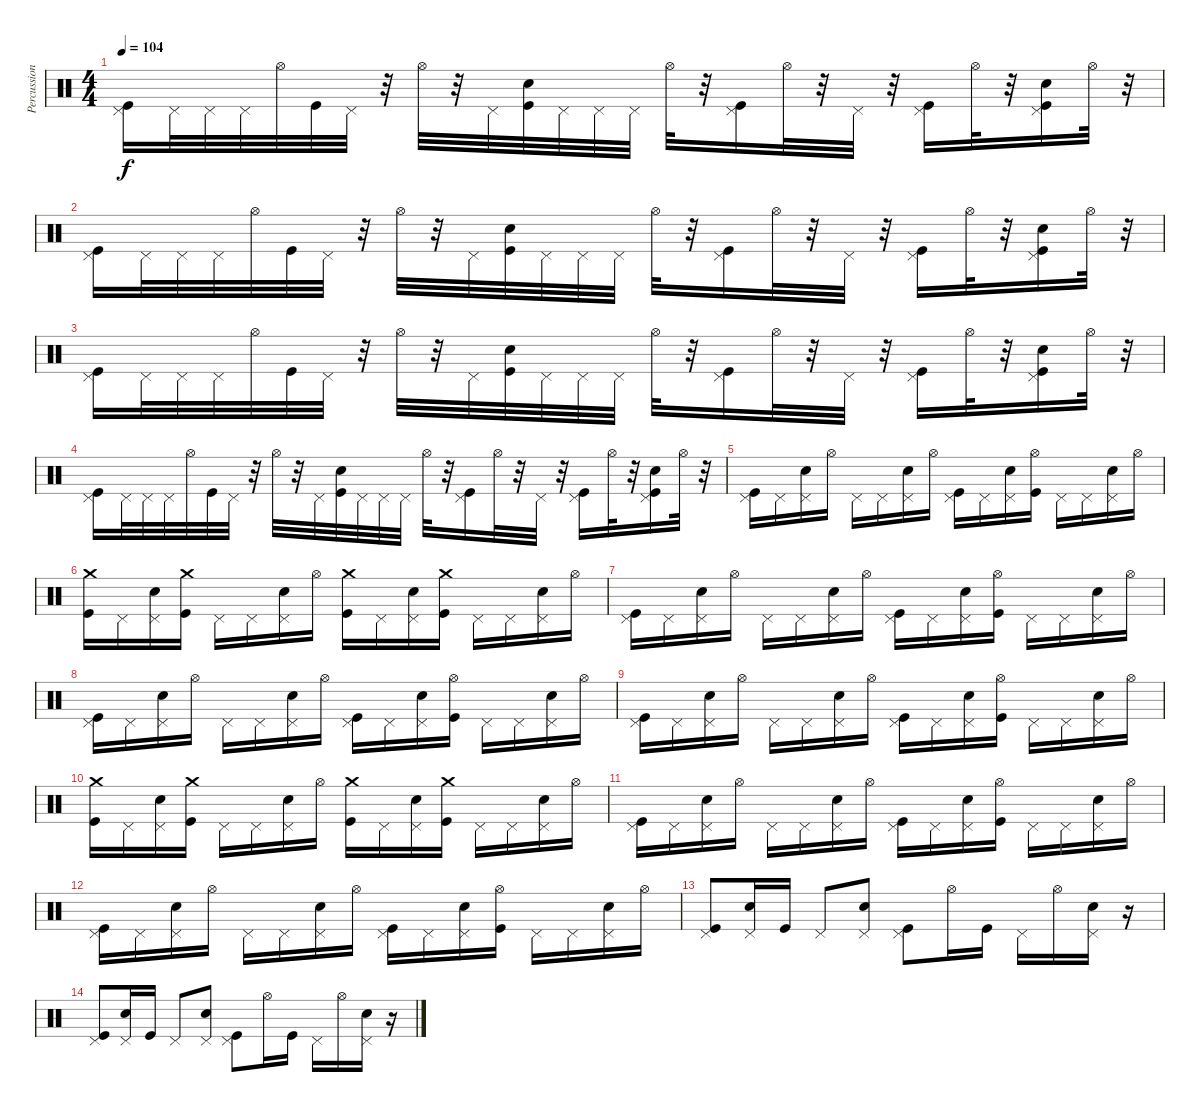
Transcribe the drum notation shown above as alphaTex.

\track ("Percussion" "Percussion") {instrument percussion}
\staff {score}
\articulation defaults
\ts (4 4)
\tempo 104
\clef neutral
\ks c
("Kick (hit)" "Pedal Hi-Hat (hit)").16{dy f volume 9 balance 16} "Pedal Hi-Hat (hit)".32 "Pedal Hi-Hat (hit)".32 "Pedal Hi-Hat (hit)".32 "Hi-Hat (open)".32 "Kick (hit)".32 "Pedal Hi-Hat (hit)".32 r.32 "Hi-Hat (open)".32 r.32 "Pedal Hi-Hat (hit)".32 ("Electric Snare (hit)" "Kick (hit)").32 "Pedal Hi-Hat (hit)".32 "Pedal Hi-Hat (hit)".32 "Pedal Hi-Hat (hit)".32 "Hi-Hat (open)".32 r.32 ("Pedal Hi-Hat (hit)" "Kick (hit)").16 "Hi-Hat (open)".32 r.32 "Pedal Hi-Hat (hit)".32 r.32 ("Kick (hit)" "Pedal Hi-Hat (hit)").16 "Hi-Hat (open)".32 r.32 ("Kick (hit)" "Electric Snare (hit)" "Pedal Hi-Hat (hit)").16 "Hi-Hat (open)".32 r.32 |
("Kick (hit)" "Pedal Hi-Hat (hit)").16 "Pedal Hi-Hat (hit)".32 "Pedal Hi-Hat (hit)".32 "Pedal Hi-Hat (hit)".32 "Hi-Hat (open)".32 "Kick (hit)".32 "Pedal Hi-Hat (hit)".32 r.32 "Hi-Hat (open)".32 r.32 "Pedal Hi-Hat (hit)".32 ("Electric Snare (hit)" "Kick (hit)").32 "Pedal Hi-Hat (hit)".32 "Pedal Hi-Hat (hit)".32 "Pedal Hi-Hat (hit)".32 "Hi-Hat (open)".32 r.32 ("Pedal Hi-Hat (hit)" "Kick (hit)").16 "Hi-Hat (open)".32 r.32 "Pedal Hi-Hat (hit)".32 r.32 ("Kick (hit)" "Pedal Hi-Hat (hit)").16 "Hi-Hat (open)".32 r.32 ("Kick (hit)" "Electric Snare (hit)" "Pedal Hi-Hat (hit)").16 "Hi-Hat (open)".32 r.32 |
("Kick (hit)" "Pedal Hi-Hat (hit)").16 "Pedal Hi-Hat (hit)".32 "Pedal Hi-Hat (hit)".32 "Pedal Hi-Hat (hit)".32 "Hi-Hat (open)".32 "Kick (hit)".32 "Pedal Hi-Hat (hit)".32 r.32 "Hi-Hat (open)".32 r.32 "Pedal Hi-Hat (hit)".32 ("Electric Snare (hit)" "Kick (hit)").32 "Pedal Hi-Hat (hit)".32 "Pedal Hi-Hat (hit)".32 "Pedal Hi-Hat (hit)".32 "Hi-Hat (open)".32 r.32 ("Pedal Hi-Hat (hit)" "Kick (hit)").16 "Hi-Hat (open)".32 r.32 "Pedal Hi-Hat (hit)".32 r.32 ("Kick (hit)" "Pedal Hi-Hat (hit)").16 "Hi-Hat (open)".32 r.32 ("Kick (hit)" "Electric Snare (hit)" "Pedal Hi-Hat (hit)").16 "Hi-Hat (open)".32 r.32 |
("Kick (hit)" "Pedal Hi-Hat (hit)").16 "Pedal Hi-Hat (hit)".32 "Pedal Hi-Hat (hit)".32 "Pedal Hi-Hat (hit)".32 "Hi-Hat (open)".32 "Kick (hit)".32 "Pedal Hi-Hat (hit)".32 r.32 "Hi-Hat (open)".32 r.32 "Pedal Hi-Hat (hit)".32 ("Electric Snare (hit)" "Kick (hit)").32 "Pedal Hi-Hat (hit)".32 "Pedal Hi-Hat (hit)".32 "Pedal Hi-Hat (hit)".32 "Hi-Hat (open)".32 r.32 ("Pedal Hi-Hat (hit)" "Kick (hit)").16 "Hi-Hat (open)".32 r.32 "Pedal Hi-Hat (hit)".32 r.32 ("Kick (hit)" "Pedal Hi-Hat (hit)").16 "Hi-Hat (open)".32 r.32 ("Kick (hit)" "Electric Snare (hit)" "Pedal Hi-Hat (hit)").16 "Hi-Hat (open)".32 r.32 |
("Kick (hit)" "Pedal Hi-Hat (hit)").16{volume 9 balance 16} "Pedal Hi-Hat (hit)".16{volume 9 balance 16} ("Electric Snare (hit)" "Pedal Hi-Hat (hit)").16 "Hi-Hat (open)".16 "Pedal Hi-Hat (hit)".16 "Pedal Hi-Hat (hit)".16 ("Electric Snare (hit)" "Pedal Hi-Hat (hit)").16 "Hi-Hat (open)".16 ("Kick (hit)" "Pedal Hi-Hat (hit)").16 "Pedal Hi-Hat (hit)".16 ("Electric Snare (hit)" "Pedal Hi-Hat (hit)").16 ("Kick (hit)" "Hi-Hat (open)").16 "Pedal Hi-Hat (hit)".16 "Pedal Hi-Hat (hit)".16 ("Electric Snare (hit)" "Pedal Hi-Hat (hit)").16 "Hi-Hat (open)".16 |
("Kick (hit)" "Crash medium (hit)").16 "Pedal Hi-Hat (hit)".16 ("Pedal Hi-Hat (hit)" "Electric Snare (hit)").16 ("Kick (hit)" "Crash medium (hit)").16 "Pedal Hi-Hat (hit)".16 "Pedal Hi-Hat (hit)".16 ("Pedal Hi-Hat (hit)" "Electric Snare (hit)").16 "Hi-Hat (open)".16 ("Kick (hit)" "Crash medium (hit)").16 "Pedal Hi-Hat (hit)".16 ("Pedal Hi-Hat (hit)" "Electric Snare (hit)").16 ("Kick (hit)" "Crash medium (hit)").16 "Pedal Hi-Hat (hit)".16 "Pedal Hi-Hat (hit)".16 ("Pedal Hi-Hat (hit)" "Electric Snare (hit)").16 "Hi-Hat (open)".16 |
("Kick (hit)" "Pedal Hi-Hat (hit)").16 "Pedal Hi-Hat (hit)".16 ("Electric Snare (hit)" "Pedal Hi-Hat (hit)").16 "Hi-Hat (open)".16 "Pedal Hi-Hat (hit)".16 "Pedal Hi-Hat (hit)".16 ("Electric Snare (hit)" "Pedal Hi-Hat (hit)").16 "Hi-Hat (open)".16 ("Kick (hit)" "Pedal Hi-Hat (hit)").16 "Pedal Hi-Hat (hit)".16 ("Electric Snare (hit)" "Pedal Hi-Hat (hit)").16 ("Kick (hit)" "Hi-Hat (open)").16 "Pedal Hi-Hat (hit)".16 "Pedal Hi-Hat (hit)".16 ("Electric Snare (hit)" "Pedal Hi-Hat (hit)").16 "Hi-Hat (open)".16 |
("Kick (hit)" "Pedal Hi-Hat (hit)").16 "Pedal Hi-Hat (hit)".16 ("Electric Snare (hit)" "Pedal Hi-Hat (hit)").16 "Hi-Hat (open)".16 "Pedal Hi-Hat (hit)".16 "Pedal Hi-Hat (hit)".16 ("Electric Snare (hit)" "Pedal Hi-Hat (hit)").16 "Hi-Hat (open)".16 ("Kick (hit)" "Pedal Hi-Hat (hit)").16 "Pedal Hi-Hat (hit)".16 ("Electric Snare (hit)" "Pedal Hi-Hat (hit)").16 ("Kick (hit)" "Hi-Hat (open)").16 "Pedal Hi-Hat (hit)".16 "Pedal Hi-Hat (hit)".16 ("Electric Snare (hit)" "Pedal Hi-Hat (hit)").16 "Hi-Hat (open)".16 |
("Kick (hit)" "Pedal Hi-Hat (hit)").16 "Pedal Hi-Hat (hit)".16 ("Electric Snare (hit)" "Pedal Hi-Hat (hit)").16 "Hi-Hat (open)".16 "Pedal Hi-Hat (hit)".16 "Pedal Hi-Hat (hit)".16 ("Electric Snare (hit)" "Pedal Hi-Hat (hit)").16 "Hi-Hat (open)".16 ("Kick (hit)" "Pedal Hi-Hat (hit)").16 "Pedal Hi-Hat (hit)".16 ("Electric Snare (hit)" "Pedal Hi-Hat (hit)").16 ("Kick (hit)" "Hi-Hat (open)").16 "Pedal Hi-Hat (hit)".16 "Pedal Hi-Hat (hit)".16 ("Electric Snare (hit)" "Pedal Hi-Hat (hit)").16 "Hi-Hat (open)".16 |
("Kick (hit)" "Crash medium (hit)").16 "Pedal Hi-Hat (hit)".16 ("Pedal Hi-Hat (hit)" "Electric Snare (hit)").16 ("Kick (hit)" "Crash medium (hit)").16 "Pedal Hi-Hat (hit)".16 "Pedal Hi-Hat (hit)".16 ("Pedal Hi-Hat (hit)" "Electric Snare (hit)").16 "Hi-Hat (open)".16 ("Kick (hit)" "Crash medium (hit)").16 "Pedal Hi-Hat (hit)".16 ("Pedal Hi-Hat (hit)" "Electric Snare (hit)").16 ("Kick (hit)" "Crash medium (hit)").16 "Pedal Hi-Hat (hit)".16 "Pedal Hi-Hat (hit)".16 ("Pedal Hi-Hat (hit)" "Electric Snare (hit)").16 "Hi-Hat (open)".16 |
("Kick (hit)" "Pedal Hi-Hat (hit)").16 "Pedal Hi-Hat (hit)".16 ("Electric Snare (hit)" "Pedal Hi-Hat (hit)").16 "Hi-Hat (open)".16 "Pedal Hi-Hat (hit)".16 "Pedal Hi-Hat (hit)".16 ("Electric Snare (hit)" "Pedal Hi-Hat (hit)").16 "Hi-Hat (open)".16 ("Kick (hit)" "Pedal Hi-Hat (hit)").16 "Pedal Hi-Hat (hit)".16 ("Electric Snare (hit)" "Pedal Hi-Hat (hit)").16 ("Kick (hit)" "Hi-Hat (open)").16 "Pedal Hi-Hat (hit)".16 "Pedal Hi-Hat (hit)".16 ("Electric Snare (hit)" "Pedal Hi-Hat (hit)").16 "Hi-Hat (open)".16 |
("Kick (hit)" "Pedal Hi-Hat (hit)").16 "Pedal Hi-Hat (hit)".16 ("Electric Snare (hit)" "Pedal Hi-Hat (hit)").16 "Hi-Hat (open)".16 "Pedal Hi-Hat (hit)".16 "Pedal Hi-Hat (hit)".16 ("Electric Snare (hit)" "Pedal Hi-Hat (hit)").16 "Hi-Hat (open)".16 ("Kick (hit)" "Pedal Hi-Hat (hit)").16 "Pedal Hi-Hat (hit)".16 ("Electric Snare (hit)" "Pedal Hi-Hat (hit)").16 ("Kick (hit)" "Hi-Hat (open)").16 "Pedal Hi-Hat (hit)".16 "Pedal Hi-Hat (hit)".16 ("Electric Snare (hit)" "Pedal Hi-Hat (hit)").16 "Hi-Hat (open)".16 |
("Kick (hit)" "Pedal Hi-Hat (hit)").8 ("Electric Snare (hit)" "Pedal Hi-Hat (hit)").16 "Kick (hit)".16 "Pedal Hi-Hat (hit)".8 ("Electric Snare (hit)" "Pedal Hi-Hat (hit)").8 ("Kick (hit)" "Pedal Hi-Hat (hit)").8 "Hi-Hat (open)".16{volume 10} "Kick (hit)".16 "Pedal Hi-Hat (hit)".16{volume 9} "Hi-Hat (open)".16{volume 9} ("Electric Snare (hit)" "Pedal Hi-Hat (hit)").16{volume 9} r.16 |
("Kick (hit)" "Pedal Hi-Hat (hit)").8{volume 8} ("Electric Snare (hit)" "Pedal Hi-Hat (hit)").16{volume 8} "Kick (hit)".16{volume 7} "Pedal Hi-Hat (hit)".8{volume 7} ("Electric Snare (hit)" "Pedal Hi-Hat (hit)").8{volume 6} ("Kick (hit)" "Pedal Hi-Hat (hit)").8{volume 5} "Hi-Hat (open)".16{volume 4} "Kick (hit)".16{volume 4} "Pedal Hi-Hat (hit)".16{volume 4} "Hi-Hat (open)".16{volume 3} ("Electric Snare (hit)" "Pedal Hi-Hat (hit)").16{volume 2} r.16
